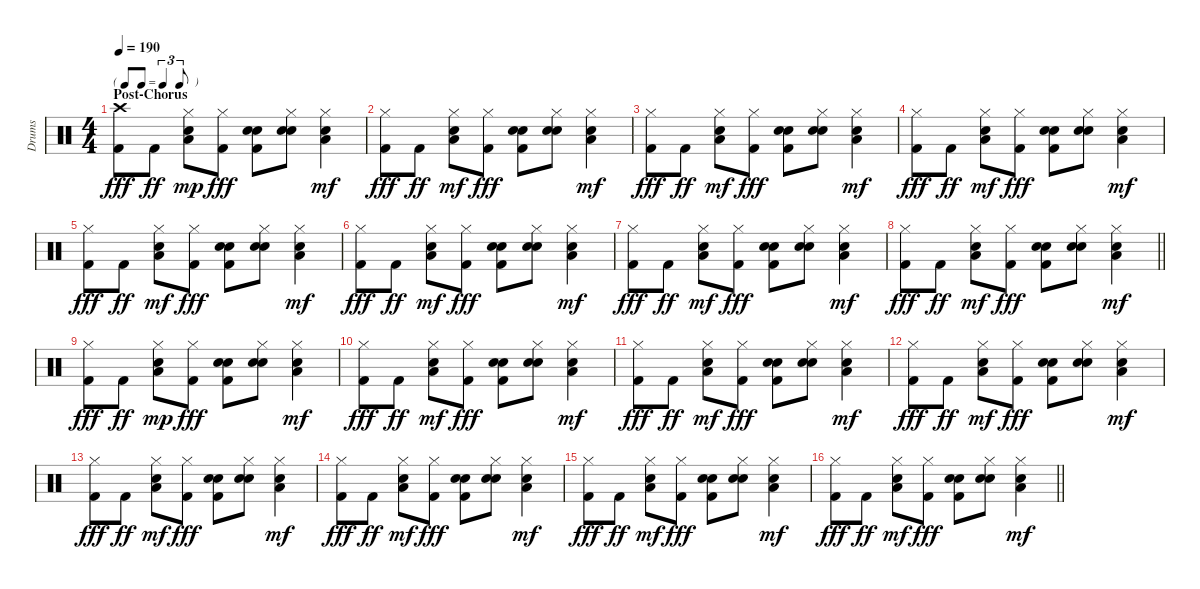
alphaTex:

\track ("Drums" "Drums") {instrument percussion}
\staff {score}
\articulation defaults
\ts (4 4)
\tf triplet8th
\section ("" "Post-Chorus")
\tempo 190
\clef neutral
\ks c
("Crash high (hit)" "Kick (hit) 2").8{dy fff} "Kick (hit) 2".8{dy ff} ("Hi-Hat (closed)" "Low Tom (hit)" "Hand Clap (hit)").8{dy mp} ("Hi-Hat (closed)" "Kick (hit) 2").8{dy fff} ("Kick (hit) 2" "Hand Clap (hit)" "Hand Clap (hit)").8 ("Hi-Hat (closed)" "Hand Clap (hit)" "Hand Clap (hit)").8 ("Hi-Hat (closed)" "Low Tom (hit)" "Hand Clap (hit)").4{dy mf} |
("Hi-Hat (closed)" "Kick (hit) 2").8{dy fff} "Kick (hit) 2".8{dy ff} ("Hi-Hat (closed)" "Low Tom (hit)" "Hand Clap (hit)").8{dy mf} ("Hi-Hat (closed)" "Kick (hit) 2").8{dy fff} ("Kick (hit) 2" "Hand Clap (hit)" "Hand Clap (hit)").8 ("Hi-Hat (closed)" "Hand Clap (hit)" "Hand Clap (hit)").8 ("Hi-Hat (closed)" "Low Tom (hit)" "Hand Clap (hit)").4{dy mf} |
("Hi-Hat (closed)" "Kick (hit) 2").8{dy fff} "Kick (hit) 2".8{dy ff} ("Hi-Hat (closed)" "Low Tom (hit)" "Hand Clap (hit)").8{dy mf} ("Hi-Hat (closed)" "Kick (hit) 2").8{dy fff} ("Kick (hit) 2" "Hand Clap (hit)" "Hand Clap (hit)").8 ("Hi-Hat (closed)" "Hand Clap (hit)" "Hand Clap (hit)").8 ("Hi-Hat (closed)" "Low Tom (hit)" "Hand Clap (hit)").4{dy mf} |
("Hi-Hat (closed)" "Kick (hit) 2").8{dy fff} "Kick (hit) 2".8{dy ff} ("Hi-Hat (closed)" "Low Tom (hit)" "Hand Clap (hit)").8{dy mf} ("Hi-Hat (closed)" "Kick (hit) 2").8{dy fff} ("Kick (hit) 2" "Hand Clap (hit)" "Hand Clap (hit)").8 ("Hi-Hat (closed)" "Hand Clap (hit)" "Hand Clap (hit)").8 ("Hi-Hat (closed)" "Low Tom (hit)" "Hand Clap (hit)").4{dy mf} |
("Hi-Hat (closed)" "Kick (hit) 2").8{dy fff} "Kick (hit) 2".8{dy ff} ("Hi-Hat (closed)" "Low Tom (hit)" "Hand Clap (hit)").8{dy mf} ("Hi-Hat (closed)" "Kick (hit) 2").8{dy fff} ("Kick (hit) 2" "Hand Clap (hit)" "Hand Clap (hit)").8 ("Hi-Hat (closed)" "Hand Clap (hit)" "Hand Clap (hit)").8 ("Hi-Hat (closed)" "Low Tom (hit)" "Hand Clap (hit)").4{dy mf} |
("Hi-Hat (closed)" "Kick (hit) 2").8{dy fff} "Kick (hit) 2".8{dy ff} ("Hi-Hat (closed)" "Low Tom (hit)" "Hand Clap (hit)").8{dy mf} ("Hi-Hat (closed)" "Kick (hit) 2").8{dy fff} ("Kick (hit) 2" "Hand Clap (hit)" "Hand Clap (hit)").8 ("Hi-Hat (closed)" "Hand Clap (hit)" "Hand Clap (hit)").8 ("Hi-Hat (closed)" "Low Tom (hit)" "Hand Clap (hit)").4{dy mf} |
("Hi-Hat (closed)" "Kick (hit) 2").8{dy fff} "Kick (hit) 2".8{dy ff} ("Hi-Hat (closed)" "Low Tom (hit)" "Hand Clap (hit)").8{dy mf} ("Hi-Hat (closed)" "Kick (hit) 2").8{dy fff} ("Kick (hit) 2" "Hand Clap (hit)" "Hand Clap (hit)").8 ("Hi-Hat (closed)" "Hand Clap (hit)" "Hand Clap (hit)").8 ("Hi-Hat (closed)" "Low Tom (hit)" "Hand Clap (hit)").4{dy mf} |
\barLineRight lightlight
("Hi-Hat (closed)" "Kick (hit) 2").8{dy fff} "Kick (hit) 2".8{dy ff} ("Hi-Hat (closed)" "Low Tom (hit)" "Hand Clap (hit)").8{dy mf} ("Hi-Hat (closed)" "Kick (hit) 2").8{dy fff} ("Kick (hit) 2" "Hand Clap (hit)" "Hand Clap (hit)").8 ("Hi-Hat (closed)" "Hand Clap (hit)" "Hand Clap (hit)").8 ("Hi-Hat (closed)" "Low Tom (hit)" "Hand Clap (hit)").4{dy mf} |
("Hi-Hat (closed)" "Kick (hit) 2").8{dy fff} "Kick (hit) 2".8{dy ff} ("Hi-Hat (closed)" "Low Tom (hit)" "Hand Clap (hit)").8{dy mp} ("Hi-Hat (closed)" "Kick (hit) 2").8{dy fff} ("Kick (hit) 2" "Hand Clap (hit)" "Hand Clap (hit)").8 ("Hi-Hat (closed)" "Hand Clap (hit)" "Hand Clap (hit)").8 ("Hi-Hat (closed)" "Low Tom (hit)" "Hand Clap (hit)").4{dy mf} |
("Hi-Hat (closed)" "Kick (hit) 2").8{dy fff} "Kick (hit) 2".8{dy ff} ("Hi-Hat (closed)" "Low Tom (hit)" "Hand Clap (hit)").8{dy mf} ("Hi-Hat (closed)" "Kick (hit) 2").8{dy fff} ("Kick (hit) 2" "Hand Clap (hit)" "Hand Clap (hit)").8 ("Hi-Hat (closed)" "Hand Clap (hit)" "Hand Clap (hit)").8 ("Hi-Hat (closed)" "Low Tom (hit)" "Hand Clap (hit)").4{dy mf} |
("Hi-Hat (closed)" "Kick (hit) 2").8{dy fff} "Kick (hit) 2".8{dy ff} ("Hi-Hat (closed)" "Low Tom (hit)" "Hand Clap (hit)").8{dy mf} ("Hi-Hat (closed)" "Kick (hit) 2").8{dy fff} ("Kick (hit) 2" "Hand Clap (hit)" "Hand Clap (hit)").8 ("Hi-Hat (closed)" "Hand Clap (hit)" "Hand Clap (hit)").8 ("Hi-Hat (closed)" "Low Tom (hit)" "Hand Clap (hit)").4{dy mf} |
("Hi-Hat (closed)" "Kick (hit) 2").8{dy fff} "Kick (hit) 2".8{dy ff} ("Hi-Hat (closed)" "Low Tom (hit)" "Hand Clap (hit)").8{dy mf} ("Hi-Hat (closed)" "Kick (hit) 2").8{dy fff} ("Kick (hit) 2" "Hand Clap (hit)" "Hand Clap (hit)").8 ("Hi-Hat (closed)" "Hand Clap (hit)" "Hand Clap (hit)").8 ("Hi-Hat (closed)" "Low Tom (hit)" "Hand Clap (hit)").4{dy mf} |
("Hi-Hat (closed)" "Kick (hit) 2").8{dy fff} "Kick (hit) 2".8{dy ff} ("Hi-Hat (closed)" "Low Tom (hit)" "Hand Clap (hit)").8{dy mf} ("Hi-Hat (closed)" "Kick (hit) 2").8{dy fff} ("Kick (hit) 2" "Hand Clap (hit)" "Hand Clap (hit)").8 ("Hi-Hat (closed)" "Hand Clap (hit)" "Hand Clap (hit)").8 ("Hi-Hat (closed)" "Low Tom (hit)" "Hand Clap (hit)").4{dy mf} |
("Hi-Hat (closed)" "Kick (hit) 2").8{dy fff} "Kick (hit) 2".8{dy ff} ("Hi-Hat (closed)" "Low Tom (hit)" "Hand Clap (hit)").8{dy mf} ("Hi-Hat (closed)" "Kick (hit) 2").8{dy fff} ("Kick (hit) 2" "Hand Clap (hit)" "Hand Clap (hit)").8 ("Hi-Hat (closed)" "Hand Clap (hit)" "Hand Clap (hit)").8 ("Hi-Hat (closed)" "Low Tom (hit)" "Hand Clap (hit)").4{dy mf} |
("Hi-Hat (closed)" "Kick (hit) 2").8{dy fff} "Kick (hit) 2".8{dy ff} ("Hi-Hat (closed)" "Low Tom (hit)" "Hand Clap (hit)").8{dy mf} ("Hi-Hat (closed)" "Kick (hit) 2").8{dy fff} ("Kick (hit) 2" "Hand Clap (hit)" "Hand Clap (hit)").8 ("Hi-Hat (closed)" "Hand Clap (hit)" "Hand Clap (hit)").8 ("Hi-Hat (closed)" "Low Tom (hit)" "Hand Clap (hit)").4{dy mf} |
\barLineRight lightlight
("Hi-Hat (closed)" "Kick (hit) 2").8{dy fff} "Kick (hit) 2".8{dy ff} ("Hi-Hat (closed)" "Low Tom (hit)" "Hand Clap (hit)").8{dy mf} ("Hi-Hat (closed)" "Kick (hit) 2").8{dy fff} ("Kick (hit) 2" "Hand Clap (hit)" "Hand Clap (hit)").8 ("Hi-Hat (closed)" "Hand Clap (hit)" "Hand Clap (hit)").8 ("Hi-Hat (closed)" "Low Tom (hit)" "Hand Clap (hit)").4{dy mf}
